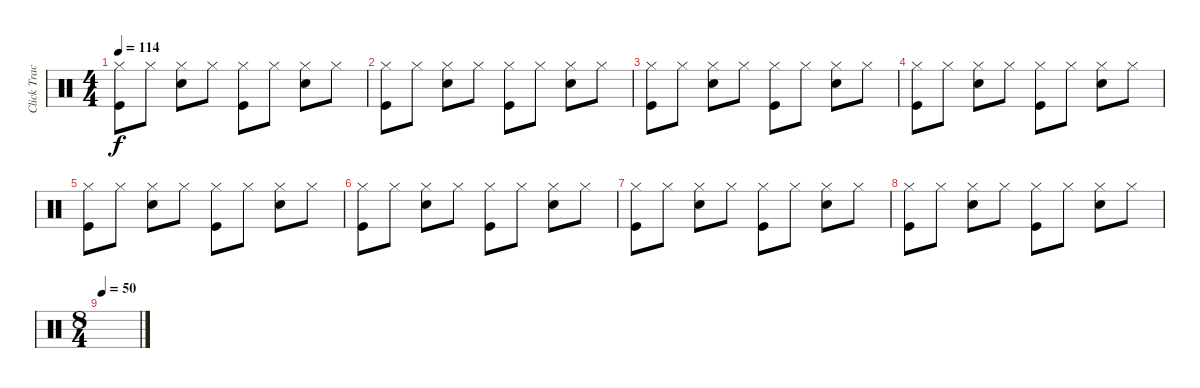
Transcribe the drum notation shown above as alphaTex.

\track ("Click Track" "Click Trac") {instrument percussion}
\staff {score}
\articulation defaults
\ts (4 4)
\tempo 114
\clef neutral
\ks c
("Hi-Hat (closed)" "Kick (hit)").8{dy f} "Hi-Hat (closed)".8 ("Hi-Hat (closed)" "Snare (hit) 2").8 "Hi-Hat (closed)".8 ("Hi-Hat (closed)" "Kick (hit)").8 "Hi-Hat (closed)".8 ("Hi-Hat (closed)" "Snare (hit) 2").8 "Hi-Hat (closed)".8 |
("Hi-Hat (closed)" "Kick (hit)").8 "Hi-Hat (closed)".8 ("Hi-Hat (closed)" "Snare (hit) 2").8 "Hi-Hat (closed)".8 ("Hi-Hat (closed)" "Kick (hit)").8 "Hi-Hat (closed)".8 ("Hi-Hat (closed)" "Snare (hit) 2").8 "Hi-Hat (closed)".8 |
("Hi-Hat (closed)" "Kick (hit)").8 "Hi-Hat (closed)".8 ("Hi-Hat (closed)" "Snare (hit) 2").8 "Hi-Hat (closed)".8 ("Hi-Hat (closed)" "Kick (hit)").8 "Hi-Hat (closed)".8 ("Hi-Hat (closed)" "Snare (hit) 2").8 "Hi-Hat (closed)".8 |
("Hi-Hat (closed)" "Kick (hit)").8 "Hi-Hat (closed)".8 ("Hi-Hat (closed)" "Snare (hit) 2").8 "Hi-Hat (closed)".8 ("Hi-Hat (closed)" "Kick (hit)").8 "Hi-Hat (closed)".8 ("Hi-Hat (closed)" "Snare (hit) 2").8 "Hi-Hat (closed)".8 |
("Hi-Hat (closed)" "Kick (hit)").8 "Hi-Hat (closed)".8 ("Hi-Hat (closed)" "Snare (hit) 2").8 "Hi-Hat (closed)".8 ("Hi-Hat (closed)" "Kick (hit)").8 "Hi-Hat (closed)".8 ("Hi-Hat (closed)" "Snare (hit) 2").8 "Hi-Hat (closed)".8 |
("Hi-Hat (closed)" "Kick (hit)").8 "Hi-Hat (closed)".8 ("Hi-Hat (closed)" "Snare (hit) 2").8 "Hi-Hat (closed)".8 ("Hi-Hat (closed)" "Kick (hit)").8 "Hi-Hat (closed)".8 ("Hi-Hat (closed)" "Snare (hit) 2").8 "Hi-Hat (closed)".8 |
("Hi-Hat (closed)" "Kick (hit)").8 "Hi-Hat (closed)".8 ("Hi-Hat (closed)" "Snare (hit) 2").8 "Hi-Hat (closed)".8 ("Hi-Hat (closed)" "Kick (hit)").8 "Hi-Hat (closed)".8 ("Hi-Hat (closed)" "Snare (hit) 2").8 "Hi-Hat (closed)".8 |
("Hi-Hat (closed)" "Kick (hit)").8 "Hi-Hat (closed)".8 ("Hi-Hat (closed)" "Snare (hit) 2").8 "Hi-Hat (closed)".8 ("Hi-Hat (closed)" "Kick (hit)").8 "Hi-Hat (closed)".8 ("Hi-Hat (closed)" "Snare (hit) 2").8 "Hi-Hat (closed)".8 |
\ts (8 4)
\tempo 50
